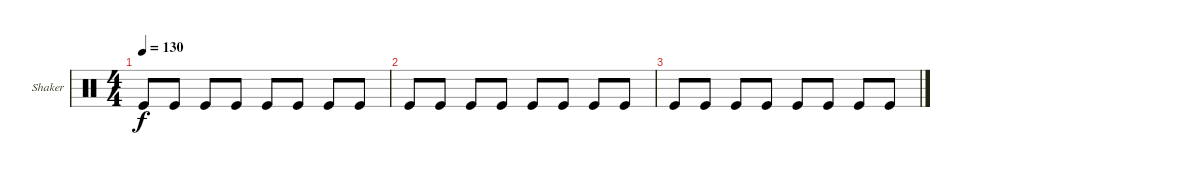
\defaultSystemsLayout 4
\bracketExtendMode groupsimilarinstruments
\firstSystemTrackNameOrientation horizontal
\otherSystemsTrackNameOrientation horizontal
\track ("Shaker" "Shaker") {instrument percussion}
\staff {score}
\articulation defaults
\ts (4 4)
\tempo 130
\clef neutral
\scale
0.333333
\ks aminor "Kick (hit)".8{dy f} "Kick (hit)".8 "Kick (hit)".8 "Kick (hit)".8 "Kick (hit)".8 "Kick (hit)".8 "Kick (hit)".8 "Kick (hit)".8
|
\scale
0.333333 "Kick (hit)".8 "Kick (hit)".8 "Kick (hit)".8 "Kick (hit)".8 "Kick (hit)".8 "Kick (hit)".8 "Kick (hit)".8 "Kick (hit)".8 |
\scale
0.333333 "Kick (hit)".8 "Kick (hit)".8 "Kick (hit)".8 "Kick (hit)".8 "Kick (hit)".8 "Kick (hit)".8 "Kick (hit)".8 "Kick (hit)".8 |
\scale
0.333333 |
\scale
0.333333
